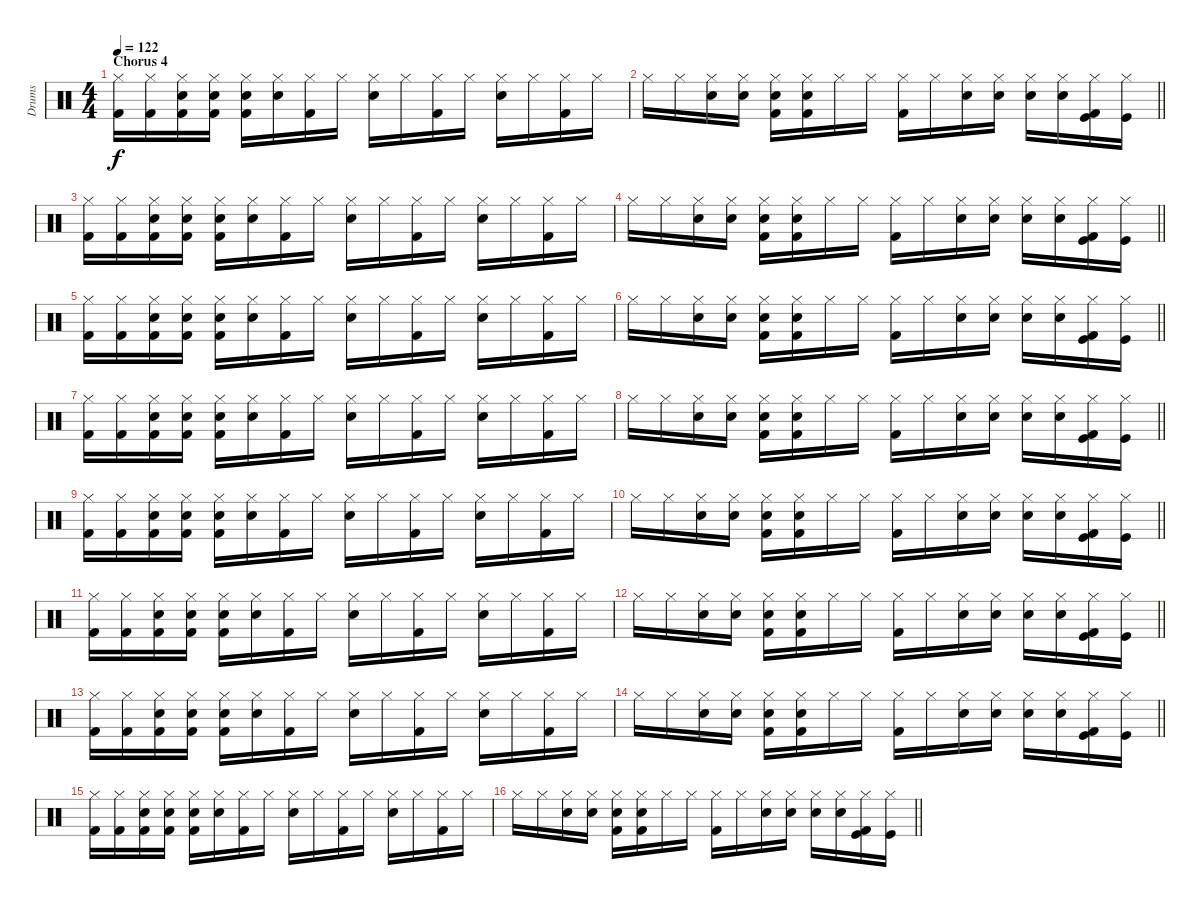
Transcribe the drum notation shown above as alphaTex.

\track ("Drums" "Drums") {instrument percussion}
\staff {score}
\articulation defaults
\ts (4 4)
\section ("" "Chorus 4")
\tempo 122
\clef neutral
\ks c
("Hi-Hat (closed)" "Kick (hit) 2").16{dy f} ("Hi-Hat (closed)" "Kick (hit) 2").16 ("Hi-Hat (closed)" "Hand Clap (hit)" "Kick (hit) 2").16 ("Hi-Hat (closed)" "Hand Clap (hit)" "Kick (hit) 2").16 ("Hi-Hat (closed)" "Hand Clap (hit)" "Kick (hit) 2").16 ("Hi-Hat (closed)" "Hand Clap (hit)").16 ("Hi-Hat (closed)" "Kick (hit) 2").16 "Hi-Hat (closed)".16 ("Hi-Hat (closed)" "Electric Snare (hit)").16 "Hi-Hat (closed)".16 ("Hi-Hat (closed)" "Kick (hit) 2").16 "Hi-Hat (closed)".16 ("Hi-Hat (closed)" "Electric Snare (hit)").16 "Hi-Hat (closed)".16 ("Hi-Hat (closed)" "Kick (hit) 2").16 "Hi-Hat (closed)".16 |
\barLineRight lightlight "Hi-Hat (closed)".16 "Hi-Hat (closed)".16
("Hi-Hat (closed)" "Hand Clap (hit)").16 ("Hi-Hat (closed)" "Hand Clap (hit)").16 ("Hi-Hat (closed)" "Hand Clap (hit)" "Kick (hit) 2").16 ("Hi-Hat (closed)" "Hand Clap (hit)" "Kick (hit) 2").16 "Hi-Hat (closed)".16 "Hi-Hat (closed)".16 ("Hi-Hat (closed)" "Kick (hit) 2").16 "Hi-Hat (closed)".16 ("Hi-Hat (closed)" "Hand Clap (hit)").16 ("Hi-Hat (closed)" "Hand Clap (hit)").16 ("Hi-Hat (closed)" "Hand Clap (hit)").16 ("Hi-Hat (closed)" "Hand Clap (hit)").16 ("Hi-Hat (closed)" "Kick (hit)" "Kick (hit) 2").16 ("Hi-Hat (closed)" "Kick (hit)").16 |
("Hi-Hat (closed)" "Kick (hit) 2").16 ("Hi-Hat (closed)" "Kick (hit) 2").16 ("Hi-Hat (closed)" "Hand Clap (hit)" "Kick (hit) 2").16 ("Hi-Hat (closed)" "Hand Clap (hit)" "Kick (hit) 2").16 ("Hi-Hat (closed)" "Hand Clap (hit)" "Kick (hit) 2").16 ("Hi-Hat (closed)" "Hand Clap (hit)").16 ("Hi-Hat (closed)" "Kick (hit) 2").16 "Hi-Hat (closed)".16 ("Hi-Hat (closed)" "Electric Snare (hit)").16 "Hi-Hat (closed)".16 ("Hi-Hat (closed)" "Kick (hit) 2").16 "Hi-Hat (closed)".16 ("Hi-Hat (closed)" "Electric Snare (hit)").16 "Hi-Hat (closed)".16 ("Hi-Hat (closed)" "Kick (hit) 2").16 "Hi-Hat (closed)".16 |
\barLineRight lightlight "Hi-Hat (closed)".16 "Hi-Hat (closed)".16
("Hi-Hat (closed)" "Hand Clap (hit)").16 ("Hi-Hat (closed)" "Hand Clap (hit)").16 ("Hi-Hat (closed)" "Hand Clap (hit)" "Kick (hit) 2").16 ("Hi-Hat (closed)" "Hand Clap (hit)" "Kick (hit) 2").16 "Hi-Hat (closed)".16 "Hi-Hat (closed)".16 ("Hi-Hat (closed)" "Kick (hit) 2").16 "Hi-Hat (closed)".16 ("Hi-Hat (closed)" "Hand Clap (hit)").16 ("Hi-Hat (closed)" "Hand Clap (hit)").16 ("Hi-Hat (closed)" "Hand Clap (hit)").16 ("Hi-Hat (closed)" "Hand Clap (hit)").16 ("Hi-Hat (closed)" "Kick (hit)" "Kick (hit) 2").16 ("Hi-Hat (closed)" "Kick (hit)").16 |
("Hi-Hat (closed)" "Kick (hit) 2").16 ("Hi-Hat (closed)" "Kick (hit) 2").16 ("Hi-Hat (closed)" "Hand Clap (hit)" "Kick (hit) 2").16 ("Hi-Hat (closed)" "Hand Clap (hit)" "Kick (hit) 2").16 ("Hi-Hat (closed)" "Hand Clap (hit)" "Kick (hit) 2").16 ("Hi-Hat (closed)" "Hand Clap (hit)").16 ("Hi-Hat (closed)" "Kick (hit) 2").16 "Hi-Hat (closed)".16 ("Hi-Hat (closed)" "Electric Snare (hit)").16 "Hi-Hat (closed)".16 ("Hi-Hat (closed)" "Kick (hit) 2").16 "Hi-Hat (closed)".16 ("Hi-Hat (closed)" "Electric Snare (hit)").16 "Hi-Hat (closed)".16 ("Hi-Hat (closed)" "Kick (hit) 2").16 "Hi-Hat (closed)".16 |
\barLineRight lightlight "Hi-Hat (closed)".16 "Hi-Hat (closed)".16
("Hi-Hat (closed)" "Hand Clap (hit)").16 ("Hi-Hat (closed)" "Hand Clap (hit)").16 ("Hi-Hat (closed)" "Hand Clap (hit)" "Kick (hit) 2").16 ("Hi-Hat (closed)" "Hand Clap (hit)" "Kick (hit) 2").16 "Hi-Hat (closed)".16 "Hi-Hat (closed)".16 ("Hi-Hat (closed)" "Kick (hit) 2").16 "Hi-Hat (closed)".16 ("Hi-Hat (closed)" "Hand Clap (hit)").16 ("Hi-Hat (closed)" "Hand Clap (hit)").16 ("Hi-Hat (closed)" "Hand Clap (hit)").16 ("Hi-Hat (closed)" "Hand Clap (hit)").16 ("Hi-Hat (closed)" "Kick (hit)" "Kick (hit) 2").16 ("Hi-Hat (closed)" "Kick (hit)").16 |
("Hi-Hat (closed)" "Kick (hit) 2").16 ("Hi-Hat (closed)" "Kick (hit) 2").16 ("Hi-Hat (closed)" "Hand Clap (hit)" "Kick (hit) 2").16 ("Hi-Hat (closed)" "Hand Clap (hit)" "Kick (hit) 2").16 ("Hi-Hat (closed)" "Hand Clap (hit)" "Kick (hit) 2").16 ("Hi-Hat (closed)" "Hand Clap (hit)").16 ("Hi-Hat (closed)" "Kick (hit) 2").16 "Hi-Hat (closed)".16 ("Hi-Hat (closed)" "Electric Snare (hit)").16 "Hi-Hat (closed)".16 ("Hi-Hat (closed)" "Kick (hit) 2").16 "Hi-Hat (closed)".16 ("Hi-Hat (closed)" "Electric Snare (hit)").16 "Hi-Hat (closed)".16 ("Hi-Hat (closed)" "Kick (hit) 2").16 "Hi-Hat (closed)".16 |
\barLineRight lightlight "Hi-Hat (closed)".16 "Hi-Hat (closed)".16
("Hi-Hat (closed)" "Hand Clap (hit)").16 ("Hi-Hat (closed)" "Hand Clap (hit)").16 ("Hi-Hat (closed)" "Hand Clap (hit)" "Kick (hit) 2").16 ("Hi-Hat (closed)" "Hand Clap (hit)" "Kick (hit) 2").16 "Hi-Hat (closed)".16 "Hi-Hat (closed)".16 ("Hi-Hat (closed)" "Kick (hit) 2").16 "Hi-Hat (closed)".16 ("Hi-Hat (closed)" "Hand Clap (hit)").16 ("Hi-Hat (closed)" "Hand Clap (hit)").16 ("Hi-Hat (closed)" "Hand Clap (hit)").16 ("Hi-Hat (closed)" "Hand Clap (hit)").16 ("Hi-Hat (closed)" "Kick (hit)" "Kick (hit) 2").16 ("Hi-Hat (closed)" "Kick (hit)").16 |
("Hi-Hat (closed)" "Kick (hit) 2").16 ("Hi-Hat (closed)" "Kick (hit) 2").16 ("Hi-Hat (closed)" "Hand Clap (hit)" "Kick (hit) 2").16 ("Hi-Hat (closed)" "Hand Clap (hit)" "Kick (hit) 2").16 ("Hi-Hat (closed)" "Hand Clap (hit)" "Kick (hit) 2").16 ("Hi-Hat (closed)" "Hand Clap (hit)").16 ("Hi-Hat (closed)" "Kick (hit) 2").16 "Hi-Hat (closed)".16 ("Hi-Hat (closed)" "Electric Snare (hit)").16 "Hi-Hat (closed)".16 ("Hi-Hat (closed)" "Kick (hit) 2").16 "Hi-Hat (closed)".16 ("Hi-Hat (closed)" "Electric Snare (hit)").16 "Hi-Hat (closed)".16 ("Hi-Hat (closed)" "Kick (hit) 2").16 "Hi-Hat (closed)".16 |
\barLineRight lightlight "Hi-Hat (closed)".16 "Hi-Hat (closed)".16
("Hi-Hat (closed)" "Hand Clap (hit)").16 ("Hi-Hat (closed)" "Hand Clap (hit)").16 ("Hi-Hat (closed)" "Hand Clap (hit)" "Kick (hit) 2").16 ("Hi-Hat (closed)" "Hand Clap (hit)" "Kick (hit) 2").16 "Hi-Hat (closed)".16 "Hi-Hat (closed)".16 ("Hi-Hat (closed)" "Kick (hit) 2").16 "Hi-Hat (closed)".16 ("Hi-Hat (closed)" "Hand Clap (hit)").16 ("Hi-Hat (closed)" "Hand Clap (hit)").16 ("Hi-Hat (closed)" "Hand Clap (hit)").16 ("Hi-Hat (closed)" "Hand Clap (hit)").16 ("Hi-Hat (closed)" "Kick (hit)" "Kick (hit) 2").16 ("Hi-Hat (closed)" "Kick (hit)").16 |
("Hi-Hat (closed)" "Kick (hit) 2").16 ("Hi-Hat (closed)" "Kick (hit) 2").16 ("Hi-Hat (closed)" "Hand Clap (hit)" "Kick (hit) 2").16 ("Hi-Hat (closed)" "Hand Clap (hit)" "Kick (hit) 2").16 ("Hi-Hat (closed)" "Hand Clap (hit)" "Kick (hit) 2").16 ("Hi-Hat (closed)" "Hand Clap (hit)").16 ("Hi-Hat (closed)" "Kick (hit) 2").16 "Hi-Hat (closed)".16 ("Hi-Hat (closed)" "Electric Snare (hit)").16 "Hi-Hat (closed)".16 ("Hi-Hat (closed)" "Kick (hit) 2").16 "Hi-Hat (closed)".16 ("Hi-Hat (closed)" "Electric Snare (hit)").16 "Hi-Hat (closed)".16 ("Hi-Hat (closed)" "Kick (hit) 2").16 "Hi-Hat (closed)".16 |
\barLineRight lightlight "Hi-Hat (closed)".16 "Hi-Hat (closed)".16
("Hi-Hat (closed)" "Hand Clap (hit)").16 ("Hi-Hat (closed)" "Hand Clap (hit)").16 ("Hi-Hat (closed)" "Hand Clap (hit)" "Kick (hit) 2").16 ("Hi-Hat (closed)" "Hand Clap (hit)" "Kick (hit) 2").16 "Hi-Hat (closed)".16 "Hi-Hat (closed)".16 ("Hi-Hat (closed)" "Kick (hit) 2").16 "Hi-Hat (closed)".16 ("Hi-Hat (closed)" "Hand Clap (hit)").16 ("Hi-Hat (closed)" "Hand Clap (hit)").16 ("Hi-Hat (closed)" "Hand Clap (hit)").16 ("Hi-Hat (closed)" "Hand Clap (hit)").16 ("Hi-Hat (closed)" "Kick (hit)" "Kick (hit) 2").16 ("Hi-Hat (closed)" "Kick (hit)").16 |
("Hi-Hat (closed)" "Kick (hit) 2").16 ("Hi-Hat (closed)" "Kick (hit) 2").16 ("Hi-Hat (closed)" "Hand Clap (hit)" "Kick (hit) 2").16 ("Hi-Hat (closed)" "Hand Clap (hit)" "Kick (hit) 2").16 ("Hi-Hat (closed)" "Hand Clap (hit)" "Kick (hit) 2").16 ("Hi-Hat (closed)" "Hand Clap (hit)").16 ("Hi-Hat (closed)" "Kick (hit) 2").16 "Hi-Hat (closed)".16 ("Hi-Hat (closed)" "Electric Snare (hit)").16 "Hi-Hat (closed)".16 ("Hi-Hat (closed)" "Kick (hit) 2").16 "Hi-Hat (closed)".16 ("Hi-Hat (closed)" "Electric Snare (hit)").16 "Hi-Hat (closed)".16 ("Hi-Hat (closed)" "Kick (hit) 2").16 "Hi-Hat (closed)".16 |
\barLineRight lightlight "Hi-Hat (closed)".16 "Hi-Hat (closed)".16
("Hi-Hat (closed)" "Hand Clap (hit)").16 ("Hi-Hat (closed)" "Hand Clap (hit)").16 ("Hi-Hat (closed)" "Hand Clap (hit)" "Kick (hit) 2").16 ("Hi-Hat (closed)" "Hand Clap (hit)" "Kick (hit) 2").16 "Hi-Hat (closed)".16 "Hi-Hat (closed)".16 ("Hi-Hat (closed)" "Kick (hit) 2").16 "Hi-Hat (closed)".16 ("Hi-Hat (closed)" "Hand Clap (hit)").16 ("Hi-Hat (closed)" "Hand Clap (hit)").16 ("Hi-Hat (closed)" "Hand Clap (hit)").16 ("Hi-Hat (closed)" "Hand Clap (hit)").16 ("Hi-Hat (closed)" "Kick (hit)" "Kick (hit) 2").16 ("Hi-Hat (closed)" "Kick (hit)").16 |
("Hi-Hat (closed)" "Kick (hit) 2").16 ("Hi-Hat (closed)" "Kick (hit) 2").16 ("Hi-Hat (closed)" "Hand Clap (hit)" "Kick (hit) 2").16 ("Hi-Hat (closed)" "Hand Clap (hit)" "Kick (hit) 2").16 ("Hi-Hat (closed)" "Hand Clap (hit)" "Kick (hit) 2").16 ("Hi-Hat (closed)" "Hand Clap (hit)").16 ("Hi-Hat (closed)" "Kick (hit) 2").16 "Hi-Hat (closed)".16 ("Hi-Hat (closed)" "Electric Snare (hit)").16 "Hi-Hat (closed)".16 ("Hi-Hat (closed)" "Kick (hit) 2").16 "Hi-Hat (closed)".16 ("Hi-Hat (closed)" "Electric Snare (hit)").16 "Hi-Hat (closed)".16 ("Hi-Hat (closed)" "Kick (hit) 2").16 "Hi-Hat (closed)".16 |
\barLineRight lightlight "Hi-Hat (closed)".16 "Hi-Hat (closed)".16
("Hi-Hat (closed)" "Hand Clap (hit)").16 ("Hi-Hat (closed)" "Hand Clap (hit)").16 ("Hi-Hat (closed)" "Hand Clap (hit)" "Kick (hit) 2").16 ("Hi-Hat (closed)" "Hand Clap (hit)" "Kick (hit) 2").16 "Hi-Hat (closed)".16 "Hi-Hat (closed)".16 ("Hi-Hat (closed)" "Kick (hit) 2").16 "Hi-Hat (closed)".16 ("Hi-Hat (closed)" "Hand Clap (hit)").16 ("Hi-Hat (closed)" "Hand Clap (hit)").16 ("Hi-Hat (closed)" "Hand Clap (hit)").16 ("Hi-Hat (closed)" "Hand Clap (hit)").16 ("Hi-Hat (closed)" "Kick (hit)" "Kick (hit) 2").16 ("Hi-Hat (closed)" "Kick (hit)").16
